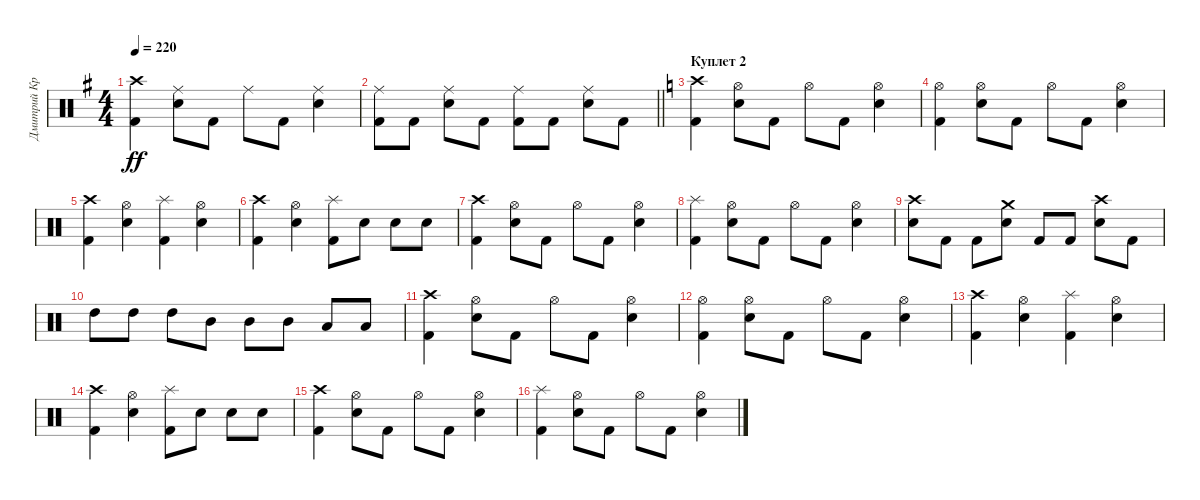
\track ("Дмитрий Кривенков" "Дмитрий Кр") {instrument percussion}
\staff {score}
\articulation defaults
\ts (4 4)
\tempo 220
\clef neutral
\ks g
("Kick (hit) 2" "Crash high (hit)").4{dy ff} ("Ride (middle)" "Snare (hit) 2").8 "Kick (hit) 2".8 "Ride (middle)".8 "Kick (hit) 2".8 ("Ride (middle)" "Snare (hit) 2").4 |
\barLineRight lightlight
("Ride (middle)" "Kick (hit) 2").8 "Kick (hit) 2".8 ("Ride (middle)" "Snare (hit) 2").8 "Kick (hit) 2".8 ("Ride (middle)" "Kick (hit) 2").8 "Kick (hit) 2".8 ("Ride (middle)" "Snare (hit) 2").8 "Kick (hit) 2".8 |
\section ("" "Куплет 2")
\ks c
("Crash high (hit)" "Kick (hit) 2").4 ("Hi-Hat (open)" "Snare (hit) 2").8 "Kick (hit) 2".8 "Hi-Hat (open)".8 "Kick (hit) 2".8 ("Hi-Hat (open)" "Snare (hit) 2").4 |
("Kick (hit) 2" "Hi-Hat (open)").4 ("Snare (hit) 2" "Hi-Hat (open)").8 "Kick (hit) 2".8 "Hi-Hat (open)".8 "Kick (hit) 2".8 ("Snare (hit) 2" "Hi-Hat (open)").4 |
("Crash high (hit)" "Kick (hit) 2").4 ("Hi-Hat (open)" "Snare (hit) 2").4 ("Splash (hit)" "Kick (hit) 2").4 ("Snare (hit) 2" "Hi-Hat (open)").4 |
("Crash high (hit)" "Kick (hit) 2").4 ("Hi-Hat (open)" "Snare (hit) 2").4 ("Splash (hit)" "Kick (hit) 2").8 "Snare (hit) 2".8 "Snare (hit) 2".8 "Snare (hit) 2".8 |
("Crash high (hit)" "Kick (hit) 2").4 ("Hi-Hat (open)" "Snare (hit) 2").8 "Kick (hit) 2".8 "Hi-Hat (open)".8 "Kick (hit) 2".8 ("Snare (hit) 2" "Hi-Hat (open)").4 |
("Kick (hit) 2" "Splash (hit)").4 ("Snare (hit) 2" "Hi-Hat (open)").8 "Kick (hit) 2".8 "Hi-Hat (open)".8 "Kick (hit) 2".8 ("Snare (hit) 2" "Hi-Hat (open)").4 |
("Crash high (hit)" "Snare (hit) 2").8 "Kick (hit) 2".8 "Kick (hit) 2".8 ("Crash medium (hit)" "Snare (hit) 2").8 "Kick (hit) 2".8 "Kick (hit) 2".8 ("Crash high (hit)" "Snare (hit) 2").8 "Kick (hit) 2".8 |
"High Tom (hit)".8 "High Tom (hit)".8 "High Tom (hit)".8 "Mid Tom (hit)".8 "Mid Tom (hit)".8 "Mid Tom (hit)".8 "Low Tom (hit)".8 "Low Tom (hit)".8 |
("Crash high (hit)" "Kick (hit) 2").4 ("Hi-Hat (open)" "Snare (hit) 2").8 "Kick (hit) 2".8 "Hi-Hat (open)".8 "Kick (hit) 2".8 ("Hi-Hat (open)" "Snare (hit) 2").4 |
("Kick (hit) 2" "Hi-Hat (open)").4 ("Snare (hit) 2" "Hi-Hat (open)").8 "Kick (hit) 2".8 "Hi-Hat (open)".8 "Kick (hit) 2".8 ("Snare (hit) 2" "Hi-Hat (open)").4 |
("Crash high (hit)" "Kick (hit) 2").4 ("Hi-Hat (open)" "Snare (hit) 2").4 ("Splash (hit)" "Kick (hit) 2").4 ("Snare (hit) 2" "Hi-Hat (open)").4 |
("Crash high (hit)" "Kick (hit) 2").4 ("Hi-Hat (open)" "Snare (hit) 2").4 ("Splash (hit)" "Kick (hit) 2").8 "Snare (hit) 2".8 "Snare (hit) 2".8 "Snare (hit) 2".8 |
("Crash high (hit)" "Kick (hit) 2").4 ("Hi-Hat (open)" "Snare (hit) 2").8 "Kick (hit) 2".8 "Hi-Hat (open)".8 "Kick (hit) 2".8 ("Snare (hit) 2" "Hi-Hat (open)").4 |
("Kick (hit) 2" "Splash (hit)").4 ("Snare (hit) 2" "Hi-Hat (open)").8 "Kick (hit) 2".8 "Hi-Hat (open)".8 "Kick (hit) 2".8 ("Snare (hit) 2" "Hi-Hat (open)").4
